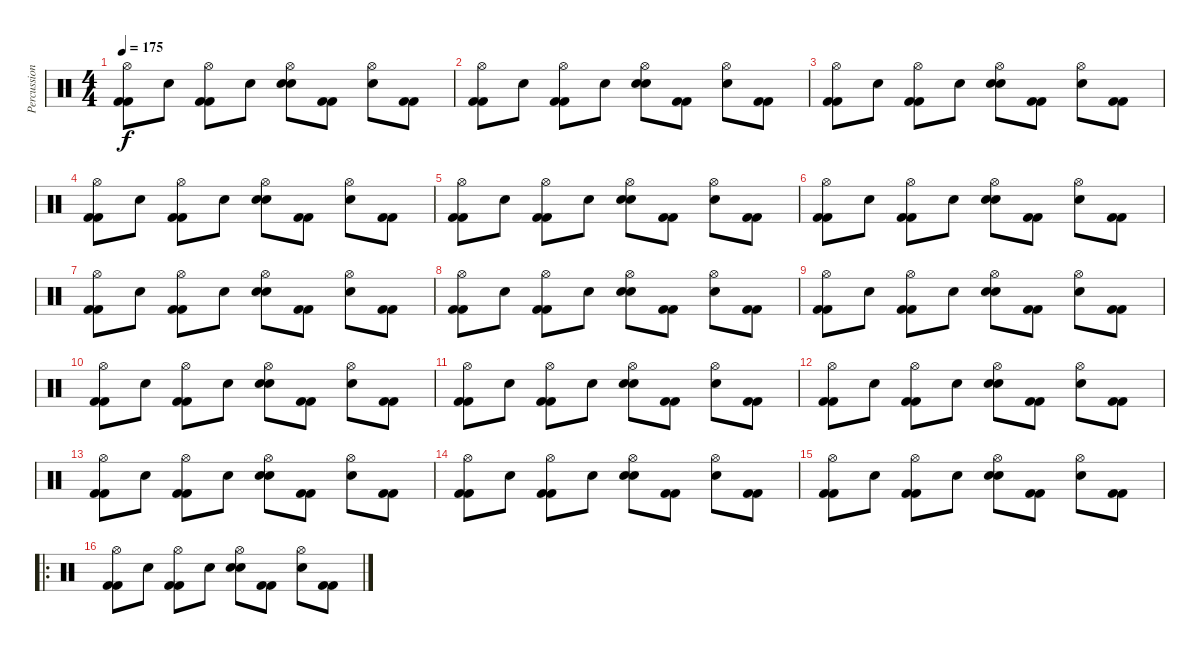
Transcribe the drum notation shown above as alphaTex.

\track ("Percussion" "Percussion") {instrument percussion}
\staff {score}
\articulation defaults
\ts (4 4)
\tempo 175
\clef neutral
\ks c
("Hi-Hat (open)" "Kick (hit) 2" "Kick (hit) 2").8{dy f} "Snare (hit)".8 ("Hi-Hat (open)" "Kick (hit) 2" "Kick (hit) 2").8 "Snare (hit)".8 ("Hi-Hat (open)" "Electric Snare (hit)" "Electric Snare (hit)").8 ("Kick (hit) 2" "Kick (hit) 2").8 ("Hi-Hat (open)" "Snare (hit)").8 ("Kick (hit) 2" "Kick (hit) 2").8 |
("Hi-Hat (open)" "Kick (hit) 2" "Kick (hit) 2").8 "Snare (hit)".8 ("Hi-Hat (open)" "Kick (hit) 2" "Kick (hit) 2").8 "Snare (hit)".8 ("Hi-Hat (open)" "Electric Snare (hit)" "Electric Snare (hit)").8 ("Kick (hit) 2" "Kick (hit) 2").8 ("Hi-Hat (open)" "Snare (hit)").8 ("Kick (hit) 2" "Kick (hit) 2").8 |
("Hi-Hat (open)" "Kick (hit) 2" "Kick (hit) 2").8 "Snare (hit)".8 ("Hi-Hat (open)" "Kick (hit) 2" "Kick (hit) 2").8 "Snare (hit)".8 ("Hi-Hat (open)" "Electric Snare (hit)" "Electric Snare (hit)").8 ("Kick (hit) 2" "Kick (hit) 2").8 ("Hi-Hat (open)" "Snare (hit)").8 ("Kick (hit) 2" "Kick (hit) 2").8 |
("Hi-Hat (open)" "Kick (hit) 2" "Kick (hit) 2").8 "Snare (hit)".8 ("Hi-Hat (open)" "Kick (hit) 2" "Kick (hit) 2").8 "Snare (hit)".8 ("Hi-Hat (open)" "Electric Snare (hit)" "Electric Snare (hit)").8 ("Kick (hit) 2" "Kick (hit) 2").8 ("Hi-Hat (open)" "Snare (hit)").8 ("Kick (hit) 2" "Kick (hit) 2").8 |
("Hi-Hat (open)" "Kick (hit) 2" "Kick (hit) 2").8 "Snare (hit)".8 ("Hi-Hat (open)" "Kick (hit) 2" "Kick (hit) 2").8 "Snare (hit)".8 ("Hi-Hat (open)" "Electric Snare (hit)" "Electric Snare (hit)").8 ("Kick (hit) 2" "Kick (hit) 2").8 ("Hi-Hat (open)" "Snare (hit)").8 ("Kick (hit) 2" "Kick (hit) 2").8 |
("Hi-Hat (open)" "Kick (hit) 2" "Kick (hit) 2").8 "Snare (hit)".8 ("Hi-Hat (open)" "Kick (hit) 2" "Kick (hit) 2").8 "Snare (hit)".8 ("Hi-Hat (open)" "Electric Snare (hit)" "Electric Snare (hit)").8 ("Kick (hit) 2" "Kick (hit) 2").8 ("Hi-Hat (open)" "Snare (hit)").8 ("Kick (hit) 2" "Kick (hit) 2").8 |
("Hi-Hat (open)" "Kick (hit) 2" "Kick (hit) 2").8 "Snare (hit)".8 ("Hi-Hat (open)" "Kick (hit) 2" "Kick (hit) 2").8 "Snare (hit)".8 ("Hi-Hat (open)" "Electric Snare (hit)" "Electric Snare (hit)").8 ("Kick (hit) 2" "Kick (hit) 2").8 ("Hi-Hat (open)" "Snare (hit)").8 ("Kick (hit) 2" "Kick (hit) 2").8 |
("Hi-Hat (open)" "Kick (hit) 2" "Kick (hit) 2").8 "Snare (hit)".8 ("Hi-Hat (open)" "Kick (hit) 2" "Kick (hit) 2").8 "Snare (hit)".8 ("Hi-Hat (open)" "Electric Snare (hit)" "Electric Snare (hit)").8 ("Kick (hit) 2" "Kick (hit) 2").8 ("Hi-Hat (open)" "Snare (hit)").8 ("Kick (hit) 2" "Kick (hit) 2").8 |
("Hi-Hat (open)" "Kick (hit) 2" "Kick (hit) 2").8 "Snare (hit)".8 ("Hi-Hat (open)" "Kick (hit) 2" "Kick (hit) 2").8 "Snare (hit)".8 ("Hi-Hat (open)" "Electric Snare (hit)" "Electric Snare (hit)").8 ("Kick (hit) 2" "Kick (hit) 2").8 ("Hi-Hat (open)" "Snare (hit)").8 ("Kick (hit) 2" "Kick (hit) 2").8 |
("Hi-Hat (open)" "Kick (hit) 2" "Kick (hit) 2").8 "Snare (hit)".8 ("Hi-Hat (open)" "Kick (hit) 2" "Kick (hit) 2").8 "Snare (hit)".8 ("Hi-Hat (open)" "Electric Snare (hit)" "Electric Snare (hit)").8 ("Kick (hit) 2" "Kick (hit) 2").8 ("Hi-Hat (open)" "Snare (hit)").8 ("Kick (hit) 2" "Kick (hit) 2").8 |
("Hi-Hat (open)" "Kick (hit) 2" "Kick (hit) 2").8 "Snare (hit)".8 ("Hi-Hat (open)" "Kick (hit) 2" "Kick (hit) 2").8 "Snare (hit)".8 ("Hi-Hat (open)" "Electric Snare (hit)" "Electric Snare (hit)").8 ("Kick (hit) 2" "Kick (hit) 2").8 ("Hi-Hat (open)" "Snare (hit)").8 ("Kick (hit) 2" "Kick (hit) 2").8 |
("Hi-Hat (open)" "Kick (hit) 2" "Kick (hit) 2").8 "Snare (hit)".8 ("Hi-Hat (open)" "Kick (hit) 2" "Kick (hit) 2").8 "Snare (hit)".8 ("Hi-Hat (open)" "Electric Snare (hit)" "Electric Snare (hit)").8 ("Kick (hit) 2" "Kick (hit) 2").8 ("Hi-Hat (open)" "Snare (hit)").8 ("Kick (hit) 2" "Kick (hit) 2").8 |
("Hi-Hat (open)" "Kick (hit) 2" "Kick (hit) 2").8 "Snare (hit)".8 ("Hi-Hat (open)" "Kick (hit) 2" "Kick (hit) 2").8 "Snare (hit)".8 ("Hi-Hat (open)" "Electric Snare (hit)" "Electric Snare (hit)").8 ("Kick (hit) 2" "Kick (hit) 2").8 ("Hi-Hat (open)" "Snare (hit)").8 ("Kick (hit) 2" "Kick (hit) 2").8 |
("Hi-Hat (open)" "Kick (hit) 2" "Kick (hit) 2").8 "Snare (hit)".8 ("Hi-Hat (open)" "Kick (hit) 2" "Kick (hit) 2").8 "Snare (hit)".8 ("Hi-Hat (open)" "Electric Snare (hit)" "Electric Snare (hit)").8 ("Kick (hit) 2" "Kick (hit) 2").8 ("Hi-Hat (open)" "Snare (hit)").8 ("Kick (hit) 2" "Kick (hit) 2").8 |
("Hi-Hat (open)" "Kick (hit) 2" "Kick (hit) 2").8 "Snare (hit)".8 ("Hi-Hat (open)" "Kick (hit) 2" "Kick (hit) 2").8 "Snare (hit)".8 ("Hi-Hat (open)" "Electric Snare (hit)" "Electric Snare (hit)").8 ("Kick (hit) 2" "Kick (hit) 2").8 ("Hi-Hat (open)" "Snare (hit)").8 ("Kick (hit) 2" "Kick (hit) 2").8 |
\ro
("Hi-Hat (open)" "Kick (hit) 2" "Kick (hit) 2").8 "Snare (hit)".8 ("Hi-Hat (open)" "Kick (hit) 2" "Kick (hit) 2").8 "Snare (hit)".8 ("Hi-Hat (open)" "Electric Snare (hit)" "Electric Snare (hit)").8 ("Kick (hit) 2" "Kick (hit) 2").8 ("Hi-Hat (open)" "Snare (hit)").8 ("Kick (hit) 2" "Kick (hit) 2").8
